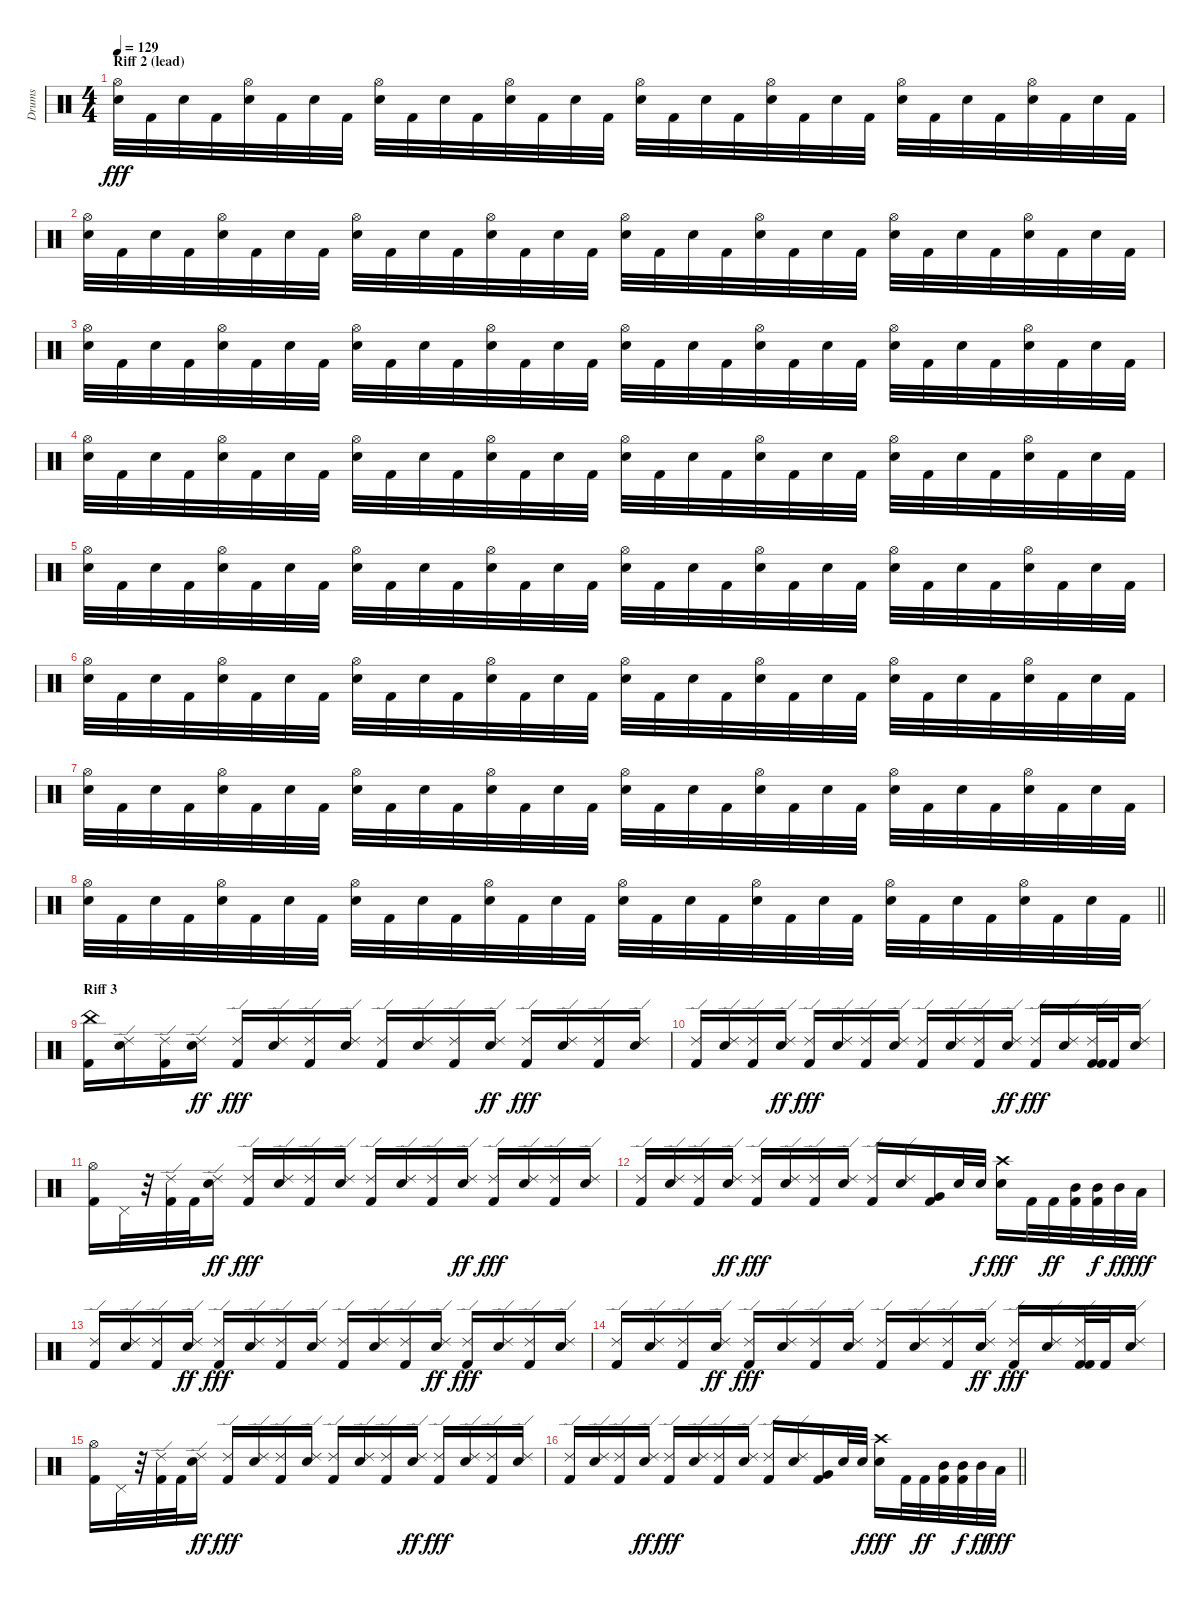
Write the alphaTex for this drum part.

\track ("Drums" "Drums") {instrument percussion}
\staff {score}
\articulation defaults
\ts (4 4)
\section ("" "Riff 2 (lead)")
\tempo 129
\clef neutral
\ks c
("Snare (hit) 2" "Hi-Hat (open)").32{dy fff} "Kick (hit) 2".32 "Snare (hit) 2".32 "Kick (hit) 2".32 ("Snare (hit) 2" "Hi-Hat (open)").32 "Kick (hit) 2".32 "Snare (hit) 2".32 "Kick (hit) 2".32 ("Snare (hit) 2" "Hi-Hat (open)").32 "Kick (hit) 2".32 "Snare (hit) 2".32 "Kick (hit) 2".32 ("Snare (hit) 2" "Hi-Hat (open)").32 "Kick (hit) 2".32 "Snare (hit) 2".32 "Kick (hit) 2".32 ("Snare (hit) 2" "Hi-Hat (open)").32 "Kick (hit) 2".32 "Snare (hit) 2".32 "Kick (hit) 2".32 ("Snare (hit) 2" "Hi-Hat (open)").32 "Kick (hit) 2".32 "Snare (hit) 2".32 "Kick (hit) 2".32 ("Snare (hit) 2" "Hi-Hat (open)").32 "Kick (hit) 2".32 "Snare (hit) 2".32 "Kick (hit) 2".32 ("Snare (hit) 2" "Hi-Hat (open)").32 "Kick (hit) 2".32 "Snare (hit) 2".32 "Kick (hit) 2".32 |
("Snare (hit) 2" "Hi-Hat (open)").32 "Kick (hit) 2".32 "Snare (hit) 2".32 "Kick (hit) 2".32 ("Snare (hit) 2" "Hi-Hat (open)").32 "Kick (hit) 2".32 "Snare (hit) 2".32 "Kick (hit) 2".32 ("Snare (hit) 2" "Hi-Hat (open)").32 "Kick (hit) 2".32 "Snare (hit) 2".32 "Kick (hit) 2".32 ("Snare (hit) 2" "Hi-Hat (open)").32 "Kick (hit) 2".32 "Snare (hit) 2".32 "Kick (hit) 2".32 ("Snare (hit) 2" "Hi-Hat (open)").32 "Kick (hit) 2".32 "Snare (hit) 2".32 "Kick (hit) 2".32 ("Snare (hit) 2" "Hi-Hat (open)").32 "Kick (hit) 2".32 "Snare (hit) 2".32 "Kick (hit) 2".32 ("Snare (hit) 2" "Hi-Hat (open)").32 "Kick (hit) 2".32 "Snare (hit) 2".32 "Kick (hit) 2".32 ("Snare (hit) 2" "Hi-Hat (open)").32 "Kick (hit) 2".32 "Snare (hit) 2".32 "Kick (hit) 2".32 |
("Snare (hit) 2" "Hi-Hat (open)").32 "Kick (hit) 2".32 "Snare (hit) 2".32 "Kick (hit) 2".32 ("Snare (hit) 2" "Hi-Hat (open)").32 "Kick (hit) 2".32 "Snare (hit) 2".32 "Kick (hit) 2".32 ("Snare (hit) 2" "Hi-Hat (open)").32 "Kick (hit) 2".32 "Snare (hit) 2".32 "Kick (hit) 2".32 ("Snare (hit) 2" "Hi-Hat (open)").32 "Kick (hit) 2".32 "Snare (hit) 2".32 "Kick (hit) 2".32 ("Snare (hit) 2" "Hi-Hat (open)").32 "Kick (hit) 2".32 "Snare (hit) 2".32 "Kick (hit) 2".32 ("Snare (hit) 2" "Hi-Hat (open)").32 "Kick (hit) 2".32 "Snare (hit) 2".32 "Kick (hit) 2".32 ("Snare (hit) 2" "Hi-Hat (open)").32 "Kick (hit) 2".32 "Snare (hit) 2".32 "Kick (hit) 2".32 ("Snare (hit) 2" "Hi-Hat (open)").32 "Kick (hit) 2".32 "Snare (hit) 2".32 "Kick (hit) 2".32 |
("Snare (hit) 2" "Hi-Hat (open)").32 "Kick (hit) 2".32 "Snare (hit) 2".32 "Kick (hit) 2".32 ("Snare (hit) 2" "Hi-Hat (open)").32 "Kick (hit) 2".32 "Snare (hit) 2".32 "Kick (hit) 2".32 ("Snare (hit) 2" "Hi-Hat (open)").32 "Kick (hit) 2".32 "Snare (hit) 2".32 "Kick (hit) 2".32 ("Snare (hit) 2" "Hi-Hat (open)").32 "Kick (hit) 2".32 "Snare (hit) 2".32 "Kick (hit) 2".32 ("Snare (hit) 2" "Hi-Hat (open)").32 "Kick (hit) 2".32 "Snare (hit) 2".32 "Kick (hit) 2".32 ("Snare (hit) 2" "Hi-Hat (open)").32 "Kick (hit) 2".32 "Snare (hit) 2".32 "Kick (hit) 2".32 ("Snare (hit) 2" "Hi-Hat (open)").32 "Kick (hit) 2".32 "Snare (hit) 2".32 "Kick (hit) 2".32 ("Snare (hit) 2" "Hi-Hat (open)").32 "Kick (hit) 2".32 "Snare (hit) 2".32 "Kick (hit) 2".32 |
("Snare (hit) 2" "Hi-Hat (open)").32 "Kick (hit) 2".32 "Snare (hit) 2".32 "Kick (hit) 2".32 ("Snare (hit) 2" "Hi-Hat (open)").32 "Kick (hit) 2".32 "Snare (hit) 2".32 "Kick (hit) 2".32 ("Snare (hit) 2" "Hi-Hat (open)").32 "Kick (hit) 2".32 "Snare (hit) 2".32 "Kick (hit) 2".32 ("Snare (hit) 2" "Hi-Hat (open)").32 "Kick (hit) 2".32 "Snare (hit) 2".32 "Kick (hit) 2".32 ("Snare (hit) 2" "Hi-Hat (open)").32 "Kick (hit) 2".32 "Snare (hit) 2".32 "Kick (hit) 2".32 ("Snare (hit) 2" "Hi-Hat (open)").32 "Kick (hit) 2".32 "Snare (hit) 2".32 "Kick (hit) 2".32 ("Snare (hit) 2" "Hi-Hat (open)").32 "Kick (hit) 2".32 "Snare (hit) 2".32 "Kick (hit) 2".32 ("Snare (hit) 2" "Hi-Hat (open)").32 "Kick (hit) 2".32 "Snare (hit) 2".32 "Kick (hit) 2".32 |
("Snare (hit) 2" "Hi-Hat (open)").32 "Kick (hit) 2".32 "Snare (hit) 2".32 "Kick (hit) 2".32 ("Snare (hit) 2" "Hi-Hat (open)").32 "Kick (hit) 2".32 "Snare (hit) 2".32 "Kick (hit) 2".32 ("Snare (hit) 2" "Hi-Hat (open)").32 "Kick (hit) 2".32 "Snare (hit) 2".32 "Kick (hit) 2".32 ("Snare (hit) 2" "Hi-Hat (open)").32 "Kick (hit) 2".32 "Snare (hit) 2".32 "Kick (hit) 2".32 ("Snare (hit) 2" "Hi-Hat (open)").32 "Kick (hit) 2".32 "Snare (hit) 2".32 "Kick (hit) 2".32 ("Snare (hit) 2" "Hi-Hat (open)").32 "Kick (hit) 2".32 "Snare (hit) 2".32 "Kick (hit) 2".32 ("Snare (hit) 2" "Hi-Hat (open)").32 "Kick (hit) 2".32 "Snare (hit) 2".32 "Kick (hit) 2".32 ("Snare (hit) 2" "Hi-Hat (open)").32 "Kick (hit) 2".32 "Snare (hit) 2".32 "Kick (hit) 2".32 |
("Snare (hit) 2" "Hi-Hat (open)").32 "Kick (hit) 2".32 "Snare (hit) 2".32 "Kick (hit) 2".32 ("Snare (hit) 2" "Hi-Hat (open)").32 "Kick (hit) 2".32 "Snare (hit) 2".32 "Kick (hit) 2".32 ("Snare (hit) 2" "Hi-Hat (open)").32 "Kick (hit) 2".32 "Snare (hit) 2".32 "Kick (hit) 2".32 ("Snare (hit) 2" "Hi-Hat (open)").32 "Kick (hit) 2".32 "Snare (hit) 2".32 "Kick (hit) 2".32 ("Snare (hit) 2" "Hi-Hat (open)").32 "Kick (hit) 2".32 "Snare (hit) 2".32 "Kick (hit) 2".32 ("Snare (hit) 2" "Hi-Hat (open)").32 "Kick (hit) 2".32 "Snare (hit) 2".32 "Kick (hit) 2".32 ("Snare (hit) 2" "Hi-Hat (open)").32 "Kick (hit) 2".32 "Snare (hit) 2".32 "Kick (hit) 2".32 ("Snare (hit) 2" "Hi-Hat (open)").32 "Kick (hit) 2".32 "Snare (hit) 2".32 "Kick (hit) 2".32 |
\barLineRight lightlight
("Snare (hit) 2" "Hi-Hat (open)").32 "Kick (hit) 2".32 "Snare (hit) 2".32 "Kick (hit) 2".32 ("Snare (hit) 2" "Hi-Hat (open)").32 "Kick (hit) 2".32 "Snare (hit) 2".32 "Kick (hit) 2".32 ("Snare (hit) 2" "Hi-Hat (open)").32 "Kick (hit) 2".32 "Snare (hit) 2".32 "Kick (hit) 2".32 ("Snare (hit) 2" "Hi-Hat (open)").32 "Kick (hit) 2".32 "Snare (hit) 2".32 "Kick (hit) 2".32 ("Snare (hit) 2" "Hi-Hat (open)").32 "Kick (hit) 2".32 "Snare (hit) 2".32 "Kick (hit) 2".32 ("Snare (hit) 2" "Hi-Hat (open)").32 "Kick (hit) 2".32 "Snare (hit) 2".32 "Kick (hit) 2".32 ("Snare (hit) 2" "Hi-Hat (open)").32 "Kick (hit) 2".32 "Snare (hit) 2".32 "Kick (hit) 2".32 ("Snare (hit) 2" "Hi-Hat (open)").32 "Kick (hit) 2".32 "Snare (hit) 2".32 "Kick (hit) 2".32 |
\section ("" "Riff 3")
("Kick (hit) 2" "China (hit)").16 ("Snare (hit) 2" "Ride (edge) 2").16 ("Kick (hit) 2" "Ride (edge) 2").16 ("Snare (hit) 2" "Ride (edge) 2").16{dy ff} ("Kick (hit) 2" "Ride (edge) 2").16{dy fff} ("Snare (hit) 2" "Ride (edge) 2").16 ("Kick (hit) 2" "Ride (edge) 2").16 ("Snare (hit) 2" "Ride (edge) 2").16 ("Kick (hit) 2" "Ride (edge) 2").16 ("Snare (hit) 2" "Ride (edge) 2").16 ("Kick (hit) 2" "Ride (edge) 2").16 ("Snare (hit) 2" "Ride (edge) 2").16{dy ff} ("Kick (hit) 2" "Ride (edge) 2").16{dy fff} ("Snare (hit) 2" "Ride (edge) 2").16 ("Kick (hit) 2" "Ride (edge) 2").16 ("Snare (hit) 2" "Ride (edge) 2").16 |
("Kick (hit) 2" "Ride (edge) 2").16 ("Snare (hit) 2" "Ride (edge) 2").16 ("Kick (hit) 2" "Ride (edge) 2").16 ("Snare (hit) 2" "Ride (edge) 2").16{dy ff} ("Kick (hit) 2" "Ride (edge) 2").16{dy fff} ("Snare (hit) 2" "Ride (edge) 2").16 ("Kick (hit) 2" "Ride (edge) 2").16 ("Snare (hit) 2" "Ride (edge) 2").16 ("Kick (hit) 2" "Ride (edge) 2").16 ("Snare (hit) 2" "Ride (edge) 2").16 ("Kick (hit) 2" "Ride (edge) 2").16 ("Snare (hit) 2" "Ride (edge) 2").16{dy ff} ("Kick (hit) 2" "Ride (edge) 2").16{dy fff} ("Snare (hit) 2" "Ride (edge) 2").16 ("Kick (hit) 2" "Kick (hit) 2" "Ride (edge) 2").32 "Kick (hit) 2".32 ("Snare (hit) 2" "Ride (edge) 2").16 |
("Kick (hit) 2" "Hi-Hat (open)").16 "Pedal Hi-Hat (hit)".32 r.32 ("Kick (hit) 2" "Ride (edge) 2").32 "Kick (hit) 2".32 ("Snare (hit) 2" "Ride (edge) 2").16{dy ff} ("Kick (hit) 2" "Ride (edge) 2").16{dy fff} ("Snare (hit) 2" "Ride (edge) 2").16 ("Kick (hit) 2" "Ride (edge) 2").16 ("Snare (hit) 2" "Ride (edge) 2").16 ("Kick (hit) 2" "Ride (edge) 2").16 ("Snare (hit) 2" "Ride (edge) 2").16 ("Kick (hit) 2" "Ride (edge) 2").16 ("Snare (hit) 2" "Ride (edge) 2").16{dy ff} ("Kick (hit) 2" "Ride (edge) 2").16{dy fff} ("Snare (hit) 2" "Ride (edge) 2").16 ("Kick (hit) 2" "Ride (edge) 2").16 ("Snare (hit) 2" "Ride (edge) 2").16 |
("Kick (hit) 2" "Ride (edge) 2").16 ("Snare (hit) 2" "Ride (edge) 2").16 ("Kick (hit) 2" "Ride (edge) 2").16 ("Snare (hit) 2" "Ride (edge) 2").16{dy ff} ("Kick (hit) 2" "Ride (edge) 2").16{dy fff} ("Snare (hit) 2" "Ride (edge) 2").16 ("Kick (hit) 2" "Ride (edge) 2").16 ("Snare (hit) 2" "Ride (edge) 2").16 ("Kick (hit) 2" "Ride (edge) 2").16 ("Snare (hit) 2" "Ride (edge) 2").16 ("Kick (hit) 2" "Very Low Tom (hit)").16 "Snare (hit) 2".32 "Snare (hit) 2".32{dy f} ("Snare (hit) 2" "Crash high (hit)").16{dy fff} "Kick (hit) 2".32 "Kick (hit) 2".32{dy ff} ("Kick (hit) 2" "Mid Tom (hit)").32 ("Kick (hit) 2" "Mid Tom (hit)").32{dy f} "Mid Tom (hit)".32{dy ff} "Low Tom (hit)".32{dy fff} |
("Kick (hit) 2" "Ride (edge) 2").16 ("Snare (hit) 2" "Ride (edge) 2").16 ("Kick (hit) 2" "Ride (edge) 2").16 ("Snare (hit) 2" "Ride (edge) 2").16{dy ff} ("Kick (hit) 2" "Ride (edge) 2").16{dy fff} ("Snare (hit) 2" "Ride (edge) 2").16 ("Kick (hit) 2" "Ride (edge) 2").16 ("Snare (hit) 2" "Ride (edge) 2").16 ("Kick (hit) 2" "Ride (edge) 2").16 ("Snare (hit) 2" "Ride (edge) 2").16 ("Kick (hit) 2" "Ride (edge) 2").16 ("Snare (hit) 2" "Ride (edge) 2").16{dy ff} ("Kick (hit) 2" "Ride (edge) 2").16{dy fff} ("Snare (hit) 2" "Ride (edge) 2").16 ("Kick (hit) 2" "Ride (edge) 2").16 ("Snare (hit) 2" "Ride (edge) 2").16 |
("Kick (hit) 2" "Ride (edge) 2").16 ("Snare (hit) 2" "Ride (edge) 2").16 ("Kick (hit) 2" "Ride (edge) 2").16 ("Snare (hit) 2" "Ride (edge) 2").16{dy ff} ("Kick (hit) 2" "Ride (edge) 2").16{dy fff} ("Snare (hit) 2" "Ride (edge) 2").16 ("Kick (hit) 2" "Ride (edge) 2").16 ("Snare (hit) 2" "Ride (edge) 2").16 ("Kick (hit) 2" "Ride (edge) 2").16 ("Snare (hit) 2" "Ride (edge) 2").16 ("Kick (hit) 2" "Ride (edge) 2").16 ("Snare (hit) 2" "Ride (edge) 2").16{dy ff} ("Kick (hit) 2" "Ride (edge) 2").16{dy fff} ("Snare (hit) 2" "Ride (edge) 2").16 ("Kick (hit) 2" "Kick (hit) 2" "Ride (edge) 2").32 "Kick (hit) 2".32 ("Snare (hit) 2" "Ride (edge) 2").16 |
("Kick (hit) 2" "Hi-Hat (open)").16 "Pedal Hi-Hat (hit)".32 r.32 ("Kick (hit) 2" "Ride (edge) 2").32 "Kick (hit) 2".32 ("Snare (hit) 2" "Ride (edge) 2").16{dy ff} ("Kick (hit) 2" "Ride (edge) 2").16{dy fff} ("Snare (hit) 2" "Ride (edge) 2").16 ("Kick (hit) 2" "Ride (edge) 2").16 ("Snare (hit) 2" "Ride (edge) 2").16 ("Kick (hit) 2" "Ride (edge) 2").16 ("Snare (hit) 2" "Ride (edge) 2").16 ("Kick (hit) 2" "Ride (edge) 2").16 ("Snare (hit) 2" "Ride (edge) 2").16{dy ff} ("Kick (hit) 2" "Ride (edge) 2").16{dy fff} ("Snare (hit) 2" "Ride (edge) 2").16 ("Kick (hit) 2" "Ride (edge) 2").16 ("Snare (hit) 2" "Ride (edge) 2").16 |
\barLineRight lightlight
("Kick (hit) 2" "Ride (edge) 2").16 ("Snare (hit) 2" "Ride (edge) 2").16 ("Kick (hit) 2" "Ride (edge) 2").16 ("Snare (hit) 2" "Ride (edge) 2").16{dy ff} ("Kick (hit) 2" "Ride (edge) 2").16{dy fff} ("Snare (hit) 2" "Ride (edge) 2").16 ("Kick (hit) 2" "Ride (edge) 2").16 ("Snare (hit) 2" "Ride (edge) 2").16 ("Kick (hit) 2" "Ride (edge) 2").16 ("Snare (hit) 2" "Ride (edge) 2").16 ("Kick (hit) 2" "Very Low Tom (hit)").16 "Snare (hit) 2".32 "Snare (hit) 2".32{dy f} ("Snare (hit) 2" "Crash high (hit)").16{dy fff} "Kick (hit) 2".32 "Kick (hit) 2".32{dy ff} ("Kick (hit) 2" "Mid Tom (hit)").32 ("Kick (hit) 2" "Mid Tom (hit)").32{dy f} "Mid Tom (hit)".32{dy ff} "Low Tom (hit)".32{dy fff}
